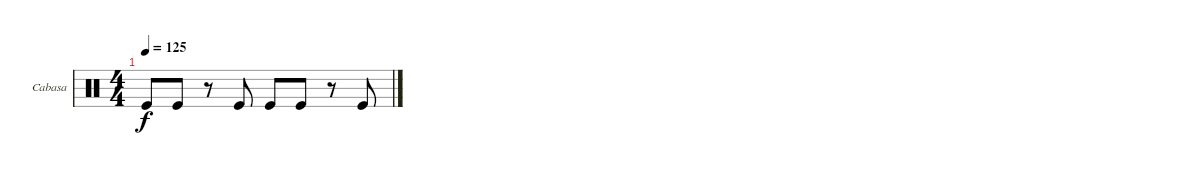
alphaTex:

\bracketExtendMode nobrackets
\firstSystemTrackNameOrientation horizontal
\otherSystemsTrackNameOrientation horizontal
\defaultBarNumberDisplay FirstOfSystem
\track ("Cabasa" "Cabasa") {instrument percussion}
\staff {score}
\articulation defaults
\ts (4 4)
\tempo 125
\clef neutral
\ks c "Kick (hit)".8{dy f} "Kick (hit)".8
r.8 "Kick (hit)".8 "Kick (hit)".8 "Kick (hit)".8 r.8 "Kick (hit)".8
